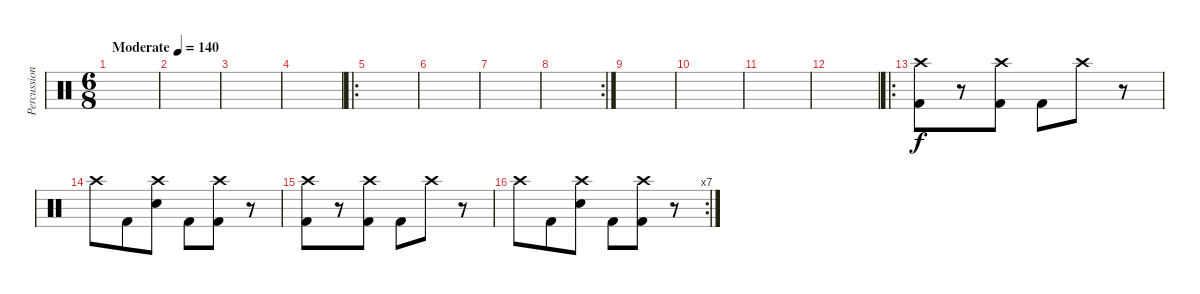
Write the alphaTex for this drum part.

\track ("Percussion" "Percussion") {instrument percussion}
\staff {score}
\articulation defaults
\ts (6 8)
\tempo (140 "Moderate")
\clef neutral
\ks c
|
|
|
|
\ro
|
|
|
\rc 2
|
|
|
|
|
\ro
("Crash high (hit)" "Kick (hit) 2").8 r.8 ("Crash high (hit)" "Kick (hit) 2").8 "Kick (hit) 2".8 "Crash high (hit)".8 r.8 |
"Crash high (hit)".8 "Kick (hit) 2".8 ("Crash high (hit)" "Electric Snare (hit)").8 "Kick (hit) 2".8 ("Crash high (hit)" "Kick (hit) 2").8 r.8 |
("Crash high (hit)" "Kick (hit) 2").8 r.8 ("Crash high (hit)" "Kick (hit) 2").8 "Kick (hit) 2".8 "Crash high (hit)".8 r.8 |
\rc 7 "Crash high (hit)".8 "Kick (hit) 2".8
("Crash high (hit)" "Electric Snare (hit)").8 "Kick (hit) 2".8 ("Crash high (hit)" "Kick (hit) 2").8 r.8
